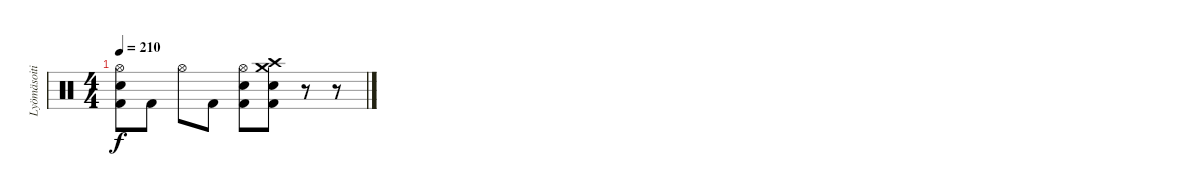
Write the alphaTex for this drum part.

\track ("Lyömäsoitin" "Lyömäsoiti") {instrument percussion}
\staff {score}
\articulation defaults
\ts (4 4)
\tempo 210
\clef neutral
\ks c
("Hi-Hat (open)" "Electric Snare (hit)" "Kick (hit) 2").8{dy f} "Kick (hit) 2".8 "Hi-Hat (open)".8 "Kick (hit) 2".8 ("Hi-Hat (open)" "Electric Snare (hit)" "Kick (hit) 2").8 ("Crash high (hit)" "Crash medium (hit)" "Electric Snare (hit)" "Kick (hit) 2").8 r.8 r.8
